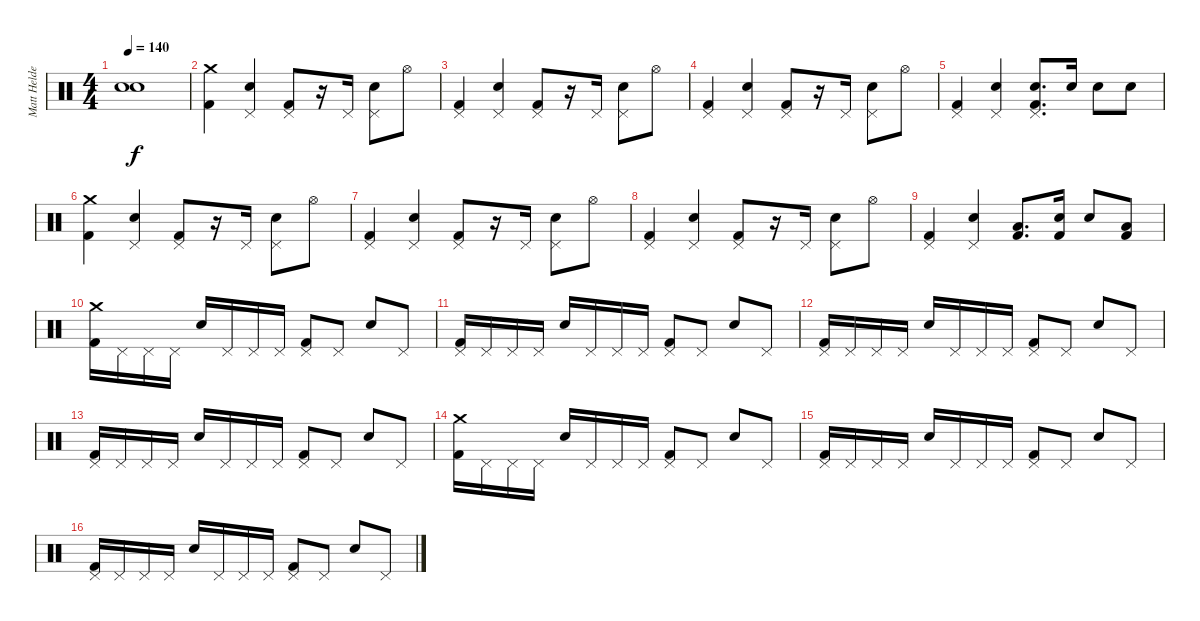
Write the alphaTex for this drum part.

\track ("Matt Helders" "Matt Helde") {instrument percussion}
\staff {score}
\articulation defaults
\ts (4 4)
\tempo 140
\clef neutral
\ks c
("Snare (hit)"{t} "Snare (hit)"{t}).1{dy f} |
("Crash medium (hit)" "Kick (hit) 2").4 ("Pedal Hi-Hat (hit)" "Snare (hit) 2").4 ("Pedal Hi-Hat (hit)" "Kick (hit) 2").8 r.16 "Pedal Hi-Hat (hit)".16 ("Pedal Hi-Hat (hit)" "Snare (hit) 2").8 "Hi-Hat (open)".8 |
("Pedal Hi-Hat (hit)" "Kick (hit) 2").4 ("Pedal Hi-Hat (hit)" "Snare (hit) 2").4 ("Pedal Hi-Hat (hit)" "Kick (hit) 2").8 r.16 "Pedal Hi-Hat (hit)".16 ("Pedal Hi-Hat (hit)" "Snare (hit) 2").8 "Hi-Hat (open)".8 |
("Pedal Hi-Hat (hit)" "Kick (hit) 2").4 ("Pedal Hi-Hat (hit)" "Snare (hit) 2").4 ("Pedal Hi-Hat (hit)" "Kick (hit) 2").8 r.16 "Pedal Hi-Hat (hit)".16 ("Pedal Hi-Hat (hit)" "Snare (hit) 2").8 "Hi-Hat (open)".8 |
("Pedal Hi-Hat (hit)" "Kick (hit) 2").4 ("Pedal Hi-Hat (hit)" "Snare (hit) 2").4 ("Pedal Hi-Hat (hit)" "Snare (hit) 2" "Kick (hit) 2").8{d} "Snare (hit) 2".16 "Snare (hit) 2".8 "Snare (hit) 2".8 |
("Crash medium (hit)" "Kick (hit) 2").4 ("Pedal Hi-Hat (hit)" "Snare (hit) 2").4 ("Pedal Hi-Hat (hit)" "Kick (hit) 2").8 r.16 "Pedal Hi-Hat (hit)".16 ("Pedal Hi-Hat (hit)" "Snare (hit) 2").8 "Hi-Hat (open)".8 |
("Pedal Hi-Hat (hit)" "Kick (hit) 2").4 ("Pedal Hi-Hat (hit)" "Snare (hit) 2").4 ("Pedal Hi-Hat (hit)" "Kick (hit) 2").8 r.16 "Pedal Hi-Hat (hit)".16 ("Pedal Hi-Hat (hit)" "Snare (hit) 2").8 "Hi-Hat (open)".8 |
("Pedal Hi-Hat (hit)" "Kick (hit) 2").4 ("Pedal Hi-Hat (hit)" "Snare (hit) 2").4 ("Pedal Hi-Hat (hit)" "Kick (hit) 2").8 r.16 "Pedal Hi-Hat (hit)".16 ("Pedal Hi-Hat (hit)" "Snare (hit) 2").8 "Hi-Hat (open)".8 |
("Pedal Hi-Hat (hit)" "Kick (hit) 2").4 ("Pedal Hi-Hat (hit)" "Snare (hit) 2").4 ("Low Tom (hit)" "Kick (hit) 2").8{d} ("Snare (hit) 2" "Kick (hit) 2").16 "Snare (hit) 2".8 ("Low Tom (hit)" "Kick (hit) 2").8 |
("Crash medium (hit)" "Kick (hit) 2").16 "Pedal Hi-Hat (hit)".16 "Pedal Hi-Hat (hit)".16 "Pedal Hi-Hat (hit)".16 "Snare (hit) 2".16 "Pedal Hi-Hat (hit)".16 "Pedal Hi-Hat (hit)".16 "Pedal Hi-Hat (hit)".16 ("Pedal Hi-Hat (hit)" "Kick (hit) 2").8 "Pedal Hi-Hat (hit)".8 "Snare (hit) 2".8 "Pedal Hi-Hat (hit)".8 |
("Pedal Hi-Hat (hit)" "Kick (hit) 2").16 "Pedal Hi-Hat (hit)".16 "Pedal Hi-Hat (hit)".16 "Pedal Hi-Hat (hit)".16 "Snare (hit) 2".16 "Pedal Hi-Hat (hit)".16 "Pedal Hi-Hat (hit)".16 "Pedal Hi-Hat (hit)".16 ("Pedal Hi-Hat (hit)" "Kick (hit) 2").8 "Pedal Hi-Hat (hit)".8 "Snare (hit) 2".8 "Pedal Hi-Hat (hit)".8 |
("Pedal Hi-Hat (hit)" "Kick (hit) 2").16 "Pedal Hi-Hat (hit)".16 "Pedal Hi-Hat (hit)".16 "Pedal Hi-Hat (hit)".16 "Snare (hit) 2".16 "Pedal Hi-Hat (hit)".16 "Pedal Hi-Hat (hit)".16 "Pedal Hi-Hat (hit)".16 ("Pedal Hi-Hat (hit)" "Kick (hit) 2").8 "Pedal Hi-Hat (hit)".8 "Snare (hit) 2".8 "Pedal Hi-Hat (hit)".8 |
("Pedal Hi-Hat (hit)" "Kick (hit) 2").16 "Pedal Hi-Hat (hit)".16 "Pedal Hi-Hat (hit)".16 "Pedal Hi-Hat (hit)".16 "Snare (hit) 2".16 "Pedal Hi-Hat (hit)".16 "Pedal Hi-Hat (hit)".16 "Pedal Hi-Hat (hit)".16 ("Pedal Hi-Hat (hit)" "Kick (hit) 2").8 "Pedal Hi-Hat (hit)".8 "Snare (hit) 2".8 "Pedal Hi-Hat (hit)".8 |
("Crash medium (hit)" "Kick (hit) 2").16 "Pedal Hi-Hat (hit)".16 "Pedal Hi-Hat (hit)".16 "Pedal Hi-Hat (hit)".16 "Snare (hit) 2".16 "Pedal Hi-Hat (hit)".16 "Pedal Hi-Hat (hit)".16 "Pedal Hi-Hat (hit)".16 ("Pedal Hi-Hat (hit)" "Kick (hit) 2").8 "Pedal Hi-Hat (hit)".8 "Snare (hit) 2".8 "Pedal Hi-Hat (hit)".8 |
("Pedal Hi-Hat (hit)" "Kick (hit) 2").16 "Pedal Hi-Hat (hit)".16 "Pedal Hi-Hat (hit)".16 "Pedal Hi-Hat (hit)".16 "Snare (hit) 2".16 "Pedal Hi-Hat (hit)".16 "Pedal Hi-Hat (hit)".16 "Pedal Hi-Hat (hit)".16 ("Pedal Hi-Hat (hit)" "Kick (hit) 2").8 "Pedal Hi-Hat (hit)".8 "Snare (hit) 2".8 "Pedal Hi-Hat (hit)".8 |
("Pedal Hi-Hat (hit)" "Kick (hit) 2").16 "Pedal Hi-Hat (hit)".16 "Pedal Hi-Hat (hit)".16 "Pedal Hi-Hat (hit)".16 "Snare (hit) 2".16 "Pedal Hi-Hat (hit)".16 "Pedal Hi-Hat (hit)".16 "Pedal Hi-Hat (hit)".16 ("Pedal Hi-Hat (hit)" "Kick (hit) 2").8 "Pedal Hi-Hat (hit)".8 "Snare (hit) 2".8 "Pedal Hi-Hat (hit)".8
